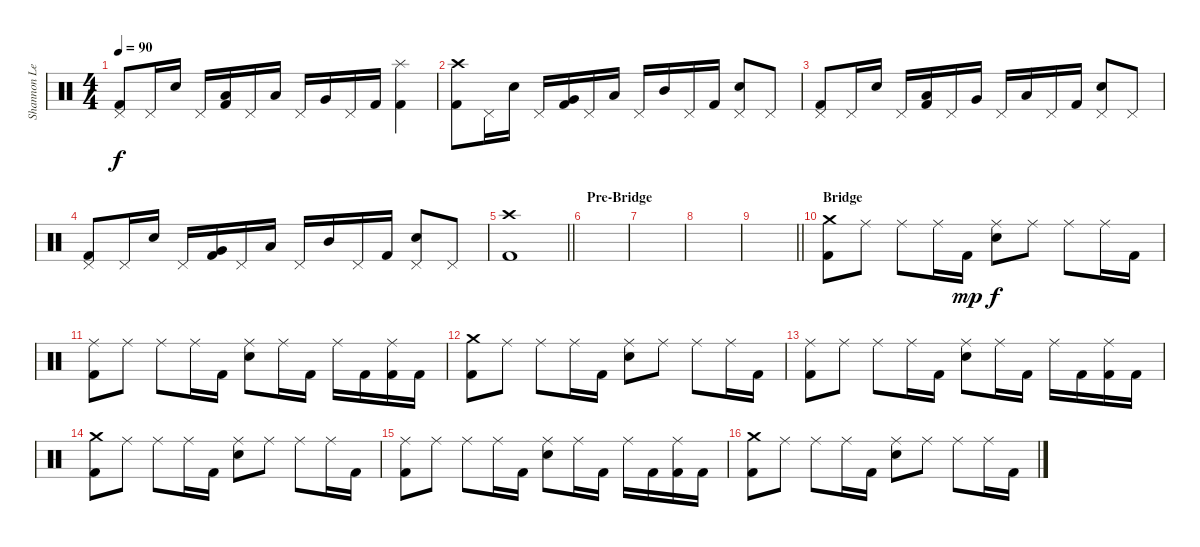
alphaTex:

\track ("Shannon Leto - Drums" "Shannon Le") {instrument percussion}
\staff {score}
\articulation defaults
\ts (4 4)
\tempo 90
\clef neutral
\ks c
("Pedal Hi-Hat (hit)" "Kick (hit) 2").8{dy f} "Pedal Hi-Hat (hit)".16 "Electric Snare (hit)".16 "Pedal Hi-Hat (hit)".16 ("Low Floor Tom (hit)" "Kick (hit) 2").16 "Pedal Hi-Hat (hit)".16 "Low Tom (hit)".16 "Pedal Hi-Hat (hit)".16 "Very Low Tom (hit)".16 "Pedal Hi-Hat (hit)".16 "Kick (hit) 2".16 ("Splash (hit)" "Kick (hit) 2").4 |
("Crash high (hit)" "Kick (hit) 2").8 "Pedal Hi-Hat (hit)".16 "Electric Snare (hit)".16 "Pedal Hi-Hat (hit)".16 ("Very Low Tom (hit)" "Kick (hit) 2").16 "Pedal Hi-Hat (hit)".16 "Low Tom (hit)".16 "Pedal Hi-Hat (hit)".16 "Mid Tom (hit)".16 "Pedal Hi-Hat (hit)".16 "Kick (hit) 2".16 ("Pedal Hi-Hat (hit)" "Electric Snare (hit)").8 "Pedal Hi-Hat (hit)".8 |
("Pedal Hi-Hat (hit)" "Kick (hit) 2").8 "Pedal Hi-Hat (hit)".16 "Electric Snare (hit)".16 "Pedal Hi-Hat (hit)".16 ("Low Floor Tom (hit)" "Kick (hit) 2").16 "Pedal Hi-Hat (hit)".16 "Very Low Tom (hit)".16 "Pedal Hi-Hat (hit)".16 "Low Tom (hit)".16 "Pedal Hi-Hat (hit)".16 "Kick (hit) 2".16 ("Pedal Hi-Hat (hit)" "Electric Snare (hit)").8 "Pedal Hi-Hat (hit)".8 |
("Pedal Hi-Hat (hit)" "Kick (hit) 2").8 "Pedal Hi-Hat (hit)".16 "Electric Snare (hit)".16 "Pedal Hi-Hat (hit)".16 ("Very Low Tom (hit)" "Kick (hit) 2").16 "Pedal Hi-Hat (hit)".16 "Low Tom (hit)".16 "Pedal Hi-Hat (hit)".16 "Mid Tom (hit)".16 "Pedal Hi-Hat (hit)".16 "Kick (hit) 2".16 ("Pedal Hi-Hat (hit)" "Electric Snare (hit)").8 "Pedal Hi-Hat (hit)".8 |
\barLineRight lightlight
("Crash high (hit)" "Kick (hit) 2").1 |
\section ("" "Pre-Bridge")
|
|
|
\barLineRight lightlight
|
\section ("" "Bridge")
("Crash medium (hit)" "Kick (hit) 2").8 "Ride (middle)".8 "Ride (middle)".8 "Ride (middle)".16 "Kick (hit) 2".16{dy mp} ("Ride (middle)" "Electric Snare (hit)").8{dy f} "Ride (middle)".8 "Ride (middle)".8 "Ride (middle)".16 "Kick (hit) 2".16 |
("Ride (middle)" "Kick (hit) 2").8 "Ride (middle)".8 "Ride (middle)".8 "Ride (middle)".16 "Kick (hit) 2".16 ("Ride (middle)" "Electric Snare (hit)").8 "Ride (middle)".16 "Kick (hit) 2".16 "Ride (middle)".16 "Kick (hit) 2".16 ("Ride (middle)" "Kick (hit) 2").16 "Kick (hit) 2".16 |
("Crash medium (hit)" "Kick (hit) 2").8 "Ride (middle)".8 "Ride (middle)".8 "Ride (middle)".16 "Kick (hit) 2".16 ("Ride (middle)" "Electric Snare (hit)").8 "Ride (middle)".8 "Ride (middle)".8 "Ride (middle)".16 "Kick (hit) 2".16 |
("Ride (middle)" "Kick (hit) 2").8 "Ride (middle)".8 "Ride (middle)".8 "Ride (middle)".16 "Kick (hit) 2".16 ("Ride (middle)" "Electric Snare (hit)").8 "Ride (middle)".16 "Kick (hit) 2".16 "Ride (middle)".16 "Kick (hit) 2".16 ("Ride (middle)" "Kick (hit) 2").16 "Kick (hit) 2".16 |
("Crash medium (hit)" "Kick (hit) 2").8 "Ride (middle)".8 "Ride (middle)".8 "Ride (middle)".16 "Kick (hit) 2".16 ("Ride (middle)" "Electric Snare (hit)").8 "Ride (middle)".8 "Ride (middle)".8 "Ride (middle)".16 "Kick (hit) 2".16 |
("Ride (middle)" "Kick (hit) 2").8 "Ride (middle)".8 "Ride (middle)".8 "Ride (middle)".16 "Kick (hit) 2".16 ("Ride (middle)" "Electric Snare (hit)").8 "Ride (middle)".16 "Kick (hit) 2".16 "Ride (middle)".16 "Kick (hit) 2".16 ("Ride (middle)" "Kick (hit) 2").16 "Kick (hit) 2".16 |
("Crash medium (hit)" "Kick (hit) 2").8 "Ride (middle)".8 "Ride (middle)".8 "Ride (middle)".16 "Kick (hit) 2".16 ("Ride (middle)" "Electric Snare (hit)").8 "Ride (middle)".8 "Ride (middle)".8 "Ride (middle)".16 "Kick (hit) 2".16
